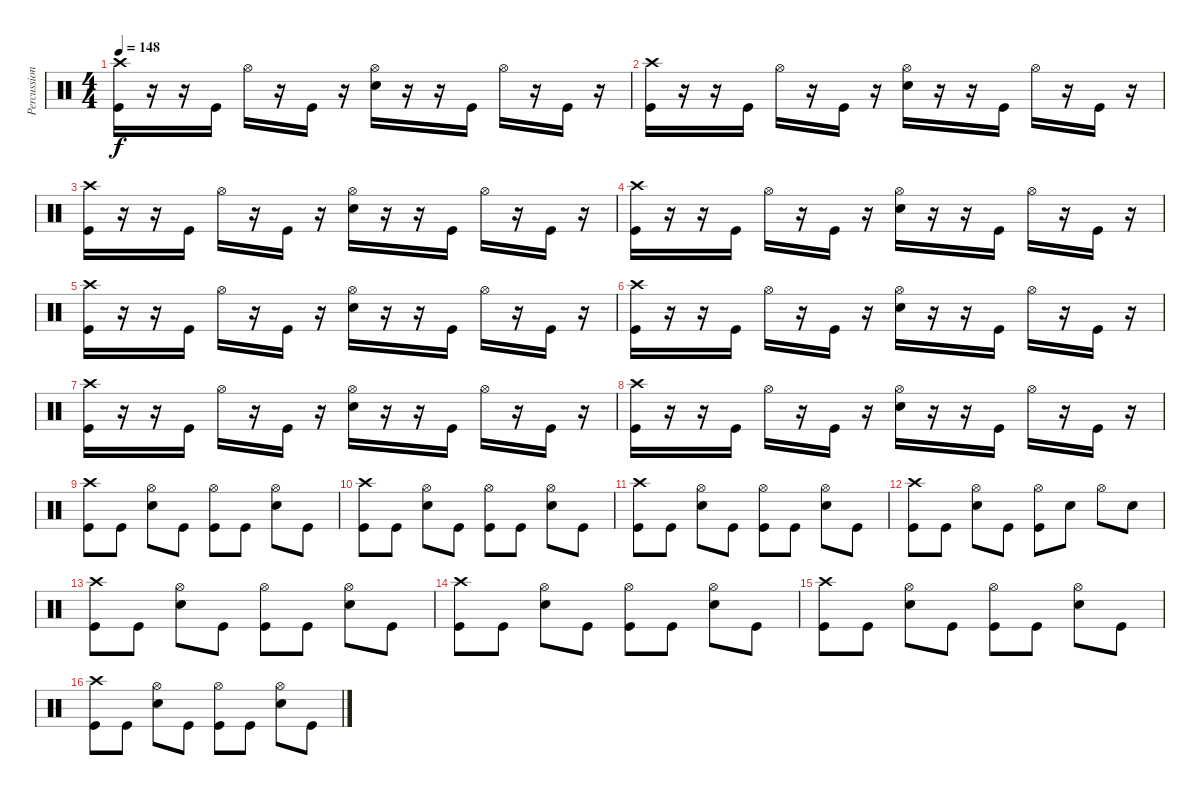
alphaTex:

\track ("Percussion" "Percussion") {instrument percussion}
\staff {score}
\articulation defaults
\ts (4 4)
\tempo 148
\clef neutral
\ks c
("Crash high (hit)" "Kick (hit)").16{dy f} r.16 r.16 "Kick (hit)".16 "Hi-Hat (open)".16 r.16 "Kick (hit)".16 r.16 ("Hi-Hat (open)" "Snare (hit) 2").16 r.16 r.16 "Kick (hit)".16 "Hi-Hat (open)".16 r.16 "Kick (hit)".16 r.16 |
("Crash high (hit)" "Kick (hit)").16 r.16 r.16 "Kick (hit)".16 "Hi-Hat (open)".16 r.16 "Kick (hit)".16 r.16 ("Hi-Hat (open)" "Snare (hit) 2").16 r.16 r.16 "Kick (hit)".16 "Hi-Hat (open)".16 r.16 "Kick (hit)".16 r.16 |
("Crash high (hit)" "Kick (hit)").16 r.16 r.16 "Kick (hit)".16 "Hi-Hat (open)".16 r.16 "Kick (hit)".16 r.16 ("Hi-Hat (open)" "Snare (hit) 2").16 r.16 r.16 "Kick (hit)".16 "Hi-Hat (open)".16 r.16 "Kick (hit)".16 r.16 |
("Crash high (hit)" "Kick (hit)").16 r.16 r.16 "Kick (hit)".16 "Hi-Hat (open)".16 r.16 "Kick (hit)".16 r.16 ("Hi-Hat (open)" "Snare (hit) 2").16 r.16 r.16 "Kick (hit)".16 "Hi-Hat (open)".16 r.16 "Kick (hit)".16 r.16 |
("Crash high (hit)" "Kick (hit)").16 r.16 r.16 "Kick (hit)".16 "Hi-Hat (open)".16 r.16 "Kick (hit)".16 r.16 ("Hi-Hat (open)" "Snare (hit) 2").16 r.16 r.16 "Kick (hit)".16 "Hi-Hat (open)".16 r.16 "Kick (hit)".16 r.16 |
("Crash high (hit)" "Kick (hit)").16 r.16 r.16 "Kick (hit)".16 "Hi-Hat (open)".16 r.16 "Kick (hit)".16 r.16 ("Hi-Hat (open)" "Snare (hit) 2").16 r.16 r.16 "Kick (hit)".16 "Hi-Hat (open)".16 r.16 "Kick (hit)".16 r.16 |
("Crash high (hit)" "Kick (hit)").16 r.16 r.16 "Kick (hit)".16 "Hi-Hat (open)".16 r.16 "Kick (hit)".16 r.16 ("Hi-Hat (open)" "Snare (hit) 2").16 r.16 r.16 "Kick (hit)".16 "Hi-Hat (open)".16 r.16 "Kick (hit)".16 r.16 |
("Crash high (hit)" "Kick (hit)").16 r.16 r.16 "Kick (hit)".16 "Hi-Hat (open)".16 r.16 "Kick (hit)".16 r.16 ("Hi-Hat (open)" "Snare (hit) 2").16 r.16 r.16 "Kick (hit)".16 "Hi-Hat (open)".16 r.16 "Kick (hit)".16 r.16 |
("Crash high (hit)" "Kick (hit)").8 "Kick (hit)".8 ("Hi-Hat (open)" "Snare (hit) 2").8 "Kick (hit)".8 ("Hi-Hat (open)" "Kick (hit)").8 "Kick (hit)".8 ("Hi-Hat (open)" "Snare (hit) 2").8 "Kick (hit)".8 |
("Crash high (hit)" "Kick (hit)").8 "Kick (hit)".8 ("Hi-Hat (open)" "Snare (hit) 2").8 "Kick (hit)".8 ("Hi-Hat (open)" "Kick (hit)").8 "Kick (hit)".8 ("Hi-Hat (open)" "Snare (hit) 2").8 "Kick (hit)".8 |
("Crash high (hit)" "Kick (hit)").8 "Kick (hit)".8 ("Hi-Hat (open)" "Snare (hit) 2").8 "Kick (hit)".8 ("Hi-Hat (open)" "Kick (hit)").8 "Kick (hit)".8 ("Hi-Hat (open)" "Snare (hit) 2").8 "Kick (hit)".8 |
("Crash high (hit)" "Kick (hit)").8 "Kick (hit)".8 ("Hi-Hat (open)" "Snare (hit) 2").8 "Kick (hit)".8 ("Hi-Hat (open)" "Kick (hit)").8 "Snare (hit) 2".8 "Hi-Hat (open)".8 "Snare (hit) 2".8 |
("Crash high (hit)" "Kick (hit)").8 "Kick (hit)".8 ("Hi-Hat (open)" "Snare (hit) 2").8 "Kick (hit)".8 ("Hi-Hat (open)" "Kick (hit)").8 "Kick (hit)".8 ("Hi-Hat (open)" "Snare (hit) 2").8 "Kick (hit)".8 |
("Crash high (hit)" "Kick (hit)").8 "Kick (hit)".8 ("Hi-Hat (open)" "Snare (hit) 2").8 "Kick (hit)".8 ("Hi-Hat (open)" "Kick (hit)").8 "Kick (hit)".8 ("Hi-Hat (open)" "Snare (hit) 2").8 "Kick (hit)".8 |
("Crash high (hit)" "Kick (hit)").8 "Kick (hit)".8 ("Hi-Hat (open)" "Snare (hit) 2").8 "Kick (hit)".8 ("Hi-Hat (open)" "Kick (hit)").8 "Kick (hit)".8 ("Hi-Hat (open)" "Snare (hit) 2").8 "Kick (hit)".8 |
("Crash high (hit)" "Kick (hit)").8 "Kick (hit)".8 ("Hi-Hat (open)" "Snare (hit) 2").8 "Kick (hit)".8 ("Hi-Hat (open)" "Kick (hit)").8 "Kick (hit)".8 ("Hi-Hat (open)" "Snare (hit) 2").8 "Kick (hit)".8
